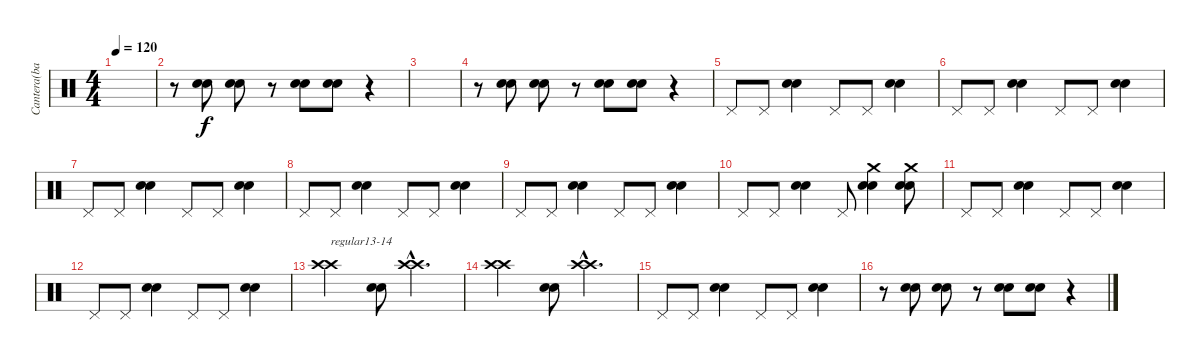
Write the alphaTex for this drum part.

\track ("Cantera(bateria)" "Cantera(ba") {instrument percussion}
\staff {score}
\articulation defaults
\ts (4 4)
\tempo 120
\clef neutral
\ks c
|
r.8 ("Electric Snare (hit)" "Electric Snare (hit)").8 ("Electric Snare (hit)" "Electric Snare (hit)").8 r.8 ("Electric Snare (hit)" "Electric Snare (hit)").8 ("Electric Snare (hit)" "Electric Snare (hit)").8 r.4 |
|
r.8 ("Electric Snare (hit)" "Electric Snare (hit)").8 ("Electric Snare (hit)" "Electric Snare (hit)").8 r.8 ("Electric Snare (hit)" "Electric Snare (hit)").8 ("Electric Snare (hit)" "Electric Snare (hit)").8 r.4 |
"Pedal Hi-Hat (hit)".8 "Pedal Hi-Hat (hit)".8 ("Electric Snare (hit)" "Electric Snare (hit)").4 "Pedal Hi-Hat (hit)".8 "Pedal Hi-Hat (hit)".8 ("Electric Snare (hit)" "Electric Snare (hit)").4 |
"Pedal Hi-Hat (hit)".8 "Pedal Hi-Hat (hit)".8 ("Electric Snare (hit)" "Electric Snare (hit)").4 "Pedal Hi-Hat (hit)".8 "Pedal Hi-Hat (hit)".8 ("Electric Snare (hit)" "Electric Snare (hit)").4 |
"Pedal Hi-Hat (hit)".8 "Pedal Hi-Hat (hit)".8 ("Electric Snare (hit)" "Electric Snare (hit)").4 "Pedal Hi-Hat (hit)".8 "Pedal Hi-Hat (hit)".8 ("Electric Snare (hit)" "Electric Snare (hit)").4 |
"Pedal Hi-Hat (hit)".8 "Pedal Hi-Hat (hit)".8 ("Electric Snare (hit)" "Electric Snare (hit)").4 "Pedal Hi-Hat (hit)".8 "Pedal Hi-Hat (hit)".8 ("Electric Snare (hit)" "Electric Snare (hit)").4 |
"Pedal Hi-Hat (hit)".8 "Pedal Hi-Hat (hit)".8 ("Electric Snare (hit)" "Electric Snare (hit)").4 "Pedal Hi-Hat (hit)".8 "Pedal Hi-Hat (hit)".8 ("Electric Snare (hit)" "Electric Snare (hit)").4 |
"Pedal Hi-Hat (hit)".8 "Pedal Hi-Hat (hit)".8 ("Electric Snare (hit)" "Electric Snare (hit)").4 "Pedal Hi-Hat (hit)".8 ("Electric Snare (hit)" "Electric Snare (hit)" "Crash medium (hit)").4 ("Electric Snare (hit)" "Electric Snare (hit)" "Crash medium (hit)").8 |
"Pedal Hi-Hat (hit)".8 "Pedal Hi-Hat (hit)".8 ("Electric Snare (hit)" "Electric Snare (hit)").4 "Pedal Hi-Hat (hit)".8 "Pedal Hi-Hat (hit)".8 ("Electric Snare (hit)" "Electric Snare (hit)").4 |
"Pedal Hi-Hat (hit)".8 "Pedal Hi-Hat (hit)".8 ("Electric Snare (hit)" "Electric Snare (hit)").4 "Pedal Hi-Hat (hit)".8 "Pedal Hi-Hat (hit)".8 ("Electric Snare (hit)" "Electric Snare (hit)").4 |
("Crash high (hit)" "Crash high (hit)").2{txt "regular13-14"} ("Electric Snare (hit)" "Electric Snare (hit)").8 ("Crash high (hit)"{hac} "Crash high (hit)"{hac}).4{d} |
("Crash high (hit)" "Crash high (hit)").2 ("Electric Snare (hit)" "Electric Snare (hit)").8 ("Crash high (hit)"{hac} "Crash high (hit)"{hac}).4{d} |
"Pedal Hi-Hat (hit)".8 "Pedal Hi-Hat (hit)".8 ("Electric Snare (hit)" "Electric Snare (hit)").4 "Pedal Hi-Hat (hit)".8 "Pedal Hi-Hat (hit)".8 ("Electric Snare (hit)" "Electric Snare (hit)").4 |
r.8 ("Electric Snare (hit)" "Electric Snare (hit)").8 ("Electric Snare (hit)" "Electric Snare (hit)").8 r.8 ("Electric Snare (hit)" "Electric Snare (hit)").8 ("Electric Snare (hit)" "Electric Snare (hit)").8 r.4
